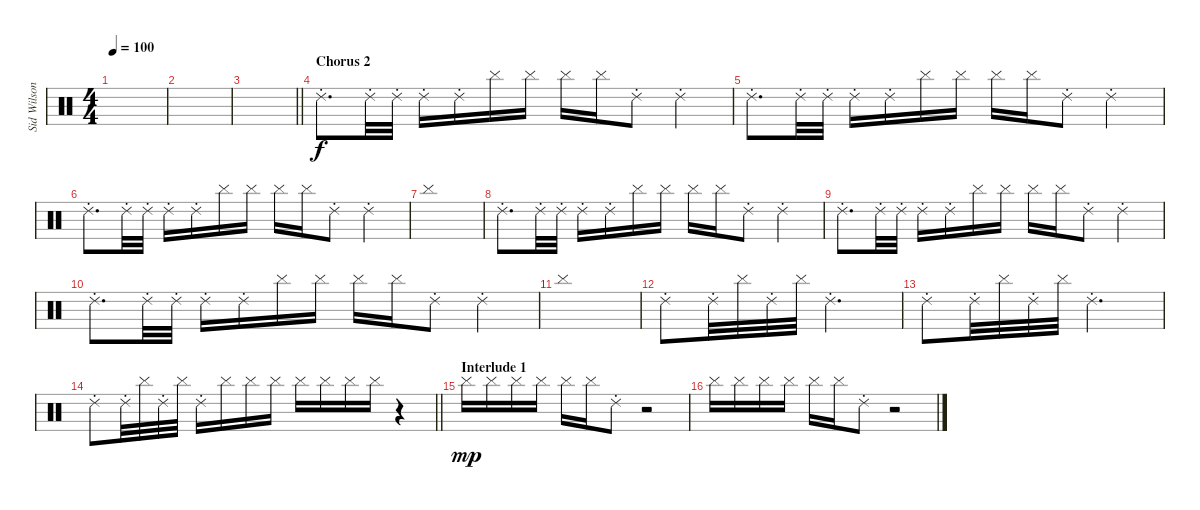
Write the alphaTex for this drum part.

\track ("Sid Wilson" "Sid Wilson") {instrument percussion}
\staff {score}
\articulation defaults
\ts (4 4)
\tempo 100
\clef neutral
\ks c
|
|
\barLineRight lightlight
|
\section ("" "Chorus 2")
"Ride (choke) 2".8{d} "Ride (choke) 2".32 "Ride (choke) 2".32 "Ride (choke) 2".16 "Ride (choke) 2".16 "Cymbal (hit)".16 "Cymbal (hit)".16 "Cymbal (hit)".16 "Cymbal (hit)".16 "Ride (choke) 2".8 "Ride (choke) 2".4 |
"Ride (choke) 2".8{d} "Ride (choke) 2".32 "Ride (choke) 2".32 "Ride (choke) 2".16 "Ride (choke) 2".16 "Cymbal (hit)".16 "Cymbal (hit)".16 "Cymbal (hit)".16 "Cymbal (hit)".16 "Ride (choke) 2".8 "Ride (choke) 2".4 |
"Ride (choke) 2".8{d} "Ride (choke) 2".32 "Ride (choke) 2".32 "Ride (choke) 2".16 "Ride (choke) 2".16 "Cymbal (hit)".16 "Cymbal (hit)".16 "Cymbal (hit)".16 "Cymbal (hit)".16 "Ride (choke) 2".8 "Ride (choke) 2".4 |
"Cymbal (hit)".1 |
"Ride (choke) 2".8{d} "Ride (choke) 2".32 "Ride (choke) 2".32 "Ride (choke) 2".16 "Ride (choke) 2".16 "Cymbal (hit)".16 "Cymbal (hit)".16 "Cymbal (hit)".16 "Cymbal (hit)".16 "Ride (choke) 2".8 "Ride (choke) 2".4 |
"Ride (choke) 2".8{d} "Ride (choke) 2".32 "Ride (choke) 2".32 "Ride (choke) 2".16 "Ride (choke) 2".16 "Cymbal (hit)".16 "Cymbal (hit)".16 "Cymbal (hit)".16 "Cymbal (hit)".16 "Ride (choke) 2".8 "Ride (choke) 2".4 |
"Ride (choke) 2".8{d} "Ride (choke) 2".32 "Ride (choke) 2".32 "Ride (choke) 2".16 "Ride (choke) 2".16 "Cymbal (hit)".16 "Cymbal (hit)".16 "Cymbal (hit)".16 "Cymbal (hit)".16 "Ride (choke) 2".8 "Ride (choke) 2".4 |
"Cymbal (hit)".1 |
"Ride (choke) 2".8 "Ride (choke) 2".32 "Cymbal (hit)".32 "Ride (choke) 2".32 "Cymbal (hit)".32 "Ride (choke) 2".2{d} |
"Ride (choke) 2".8 "Ride (choke) 2".32 "Cymbal (hit)".32 "Ride (choke) 2".32 "Cymbal (hit)".32 "Ride (choke) 2".2{d} |
\barLineRight lightlight "Ride (choke) 2".8 "Ride (choke) 2".32 "Cymbal (hit)".32 "Ride (choke) 2".32 "Cymbal (hit)".32 "Ride (choke) 2".16 "Cymbal (hit)".16 "Cymbal (hit)".16 "Cymbal (hit)".16 "Cymbal (hit)".16 "Cymbal (hit)".16 "Cymbal (hit)".16 "Cymbal (hit)".16
r.4 |
\section ("" "Interlude 1")
"Cymbal (hit)".16{dy mp} "Cymbal (hit)".16 "Cymbal (hit)".16 "Cymbal (hit)".16 "Cymbal (hit)".16 "Cymbal (hit)".16 "Ride (choke) 2".8 r.2 |
"Cymbal (hit)".16 "Cymbal (hit)".16 "Cymbal (hit)".16 "Cymbal (hit)".16 "Cymbal (hit)".16 "Cymbal (hit)".16 "Ride (choke) 2".8 r.2
